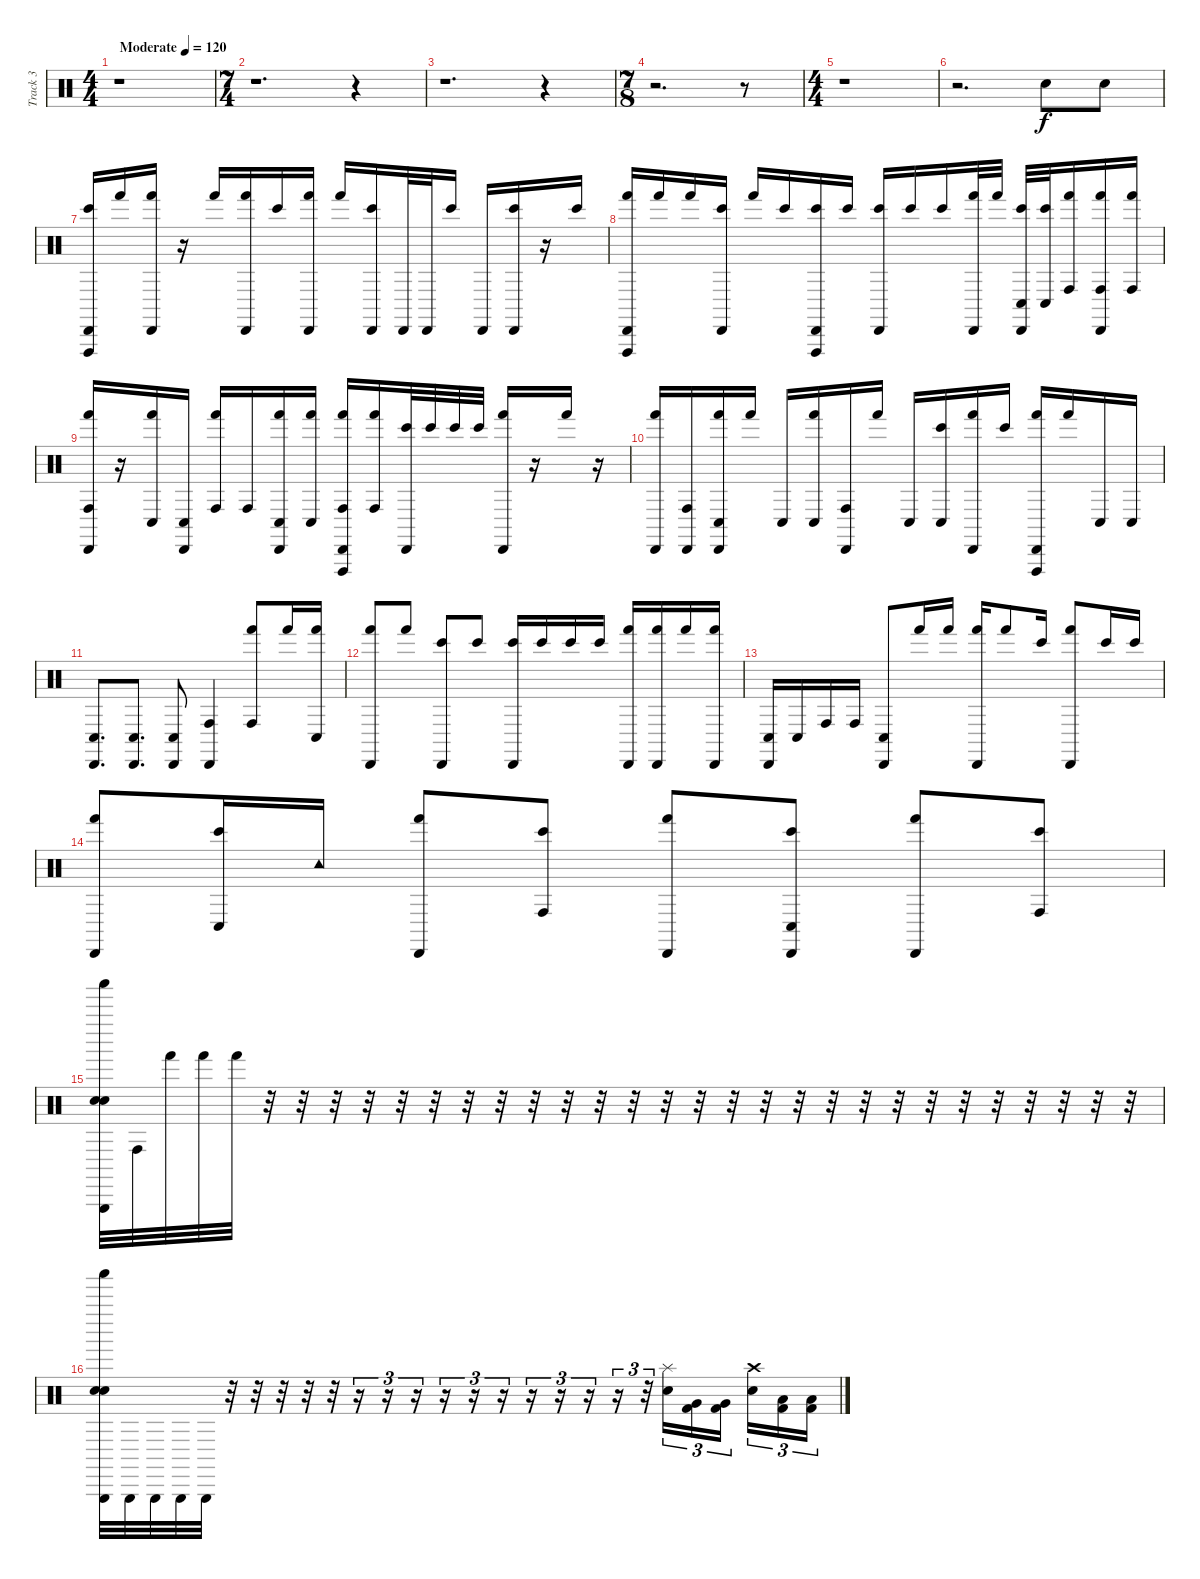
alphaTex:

\track ("Track 3" "Track 3") {instrument percussion}
\staff {score}
\articulation defaults
\ts (4 4)
\tempo (120 "Moderate")
\clef neutral
\ks c
r.1{dy f} |
\ts (7 4)
r.1{d} r.4 |
r.1{d} r.4 |
\ts (7 8)
r.2{d} r.8 |
\ts (4 4)
r.1 |
r.2{d} "Hand Clap (hit)".8 "Hand Clap (hit)".8 |
("Cabasa (hit)" "Bongo High (hit)" "Vibraslap (hit)").16 "Hand (hit)".16 ("Cabasa (hit)" "Hand (hit)").16 r.16 "Hand (hit)".16 ("Cabasa (hit)" "Hand (hit)").16 "Bongo High (hit)".16 ("Cabasa (hit)" "Hand (hit)").16 "Hand (hit)".16 ("Cabasa (hit)" "Bongo High (hit)").16 "Cabasa (hit)".32 "Cabasa (hit)".32 "Bongo High (hit)".16 "Cabasa (hit)".16 ("Cabasa (hit)" "Bongo High (hit)").16 r.16 "Bongo High (hit)".16 |
("Cabasa (hit)" "Hand (hit)" "Vibraslap (hit)").16 "Hand (hit)".16 "Hand (hit)".16 ("Cabasa (hit)" "Bongo High (hit)").16 "Hand (hit)".16 "Bongo High (hit)".16 ("Cabasa (hit)" "Bongo High (hit)" "Vibraslap (hit)").16 "Bongo High (hit)".16 ("Cabasa (hit)" "Bongo High (hit)").16 "Bongo High (hit)".16 "Bongo High (hit)".16 ("Cabasa (hit)" "Hand (hit)").32 "Hand (hit)".32 ("Cabasa (hit)" "Bongo High (hit)" "Conga low (hit)").32 ("Bongo High (hit)" "Conga low (hit)").32 ("Hand (hit)" "Conga high (hit)").16 ("Cabasa (hit)" "Hand (hit)" "Conga high (hit)").16 ("Hand (hit)" "Conga high (hit)").16 |
("Cabasa (hit)" "Hand (hit)" "Conga high (hit)").16 r.16 ("Hand (hit)" "Conga low (hit)").16 ("Cabasa (hit)" "Conga low (hit)").16 ("Hand (hit)" "Conga high (hit)").16 "Conga high (hit)".16 ("Cabasa (hit)" "Hand (hit)" "Conga low (hit)").16 ("Hand (hit)" "Conga low (hit)").16 ("Cabasa (hit)" "Hand (hit)" "Conga high (hit)" "Vibraslap (hit)").16 ("Hand (hit)" "Conga high (hit)").16 ("Cabasa (hit)" "Bongo High (hit)").32 "Bongo High (hit)".32 "Bongo High (hit)".32 "Bongo High (hit)".32 ("Cabasa (hit)" "Hand (hit)").16 r.16 "Hand (hit)".16 r.16 |
("Cabasa (hit)" "Hand (hit)").16 ("Cabasa (hit)" "Conga high (hit)").16 ("Cabasa (hit)" "Hand (hit)" "Conga low (hit)").16 "Hand (hit)".16 "Conga low (hit)".16 ("Hand (hit)" "Conga low (hit)").16 ("Cabasa (hit)" "Conga high (hit)").16 "Hand (hit)".16 "Conga low (hit)".16 ("Bongo High (hit)" "Conga low (hit)").16 ("Cabasa (hit)" "Hand (hit)").16 "Bongo High (hit)".16 ("Cabasa (hit)" "Hand (hit)" "Vibraslap (hit)").16 "Hand (hit)".16 "Conga low (hit)".16 "Conga low (hit)".16 |
("Cabasa (hit)" "Conga low (hit)").8{d} ("Cabasa (hit)" "Conga low (hit)").8{d} ("Cabasa (hit)" "Conga low (hit)").8 ("Cabasa (hit)" "Conga high (hit)").4 ("Hand (hit)" "Conga high (hit)").8 "Hand (hit)".16 ("Hand (hit)" "Conga low (hit)").16 |
("Hand (hit)" "Cabasa (hit)").8 "Hand (hit)".8 ("Bongo High (hit)" "Cabasa (hit)").8 "Bongo High (hit)".8 ("Bongo High (hit)" "Cabasa (hit)").16 "Bongo High (hit)".16 "Bongo High (hit)".16 "Bongo High (hit)".16 ("Hand (hit)" "Cabasa (hit)").16 ("Hand (hit)" "Cabasa (hit)").16 "Hand (hit)".16 ("Hand (hit)" "Cabasa (hit)").16 |
("Conga low (hit)" "Cabasa (hit)").16 "Conga low (hit)".16 "Conga high (hit)".16 "Conga high (hit)".16 ("Conga low (hit)" "Cabasa (hit)").8 "Hand (hit)".16 "Hand (hit)".16 ("Hand (hit)" "Cabasa (hit)").16 "Hand (hit)".8 "Bongo High (hit)".16 ("Hand (hit)" "Cabasa (hit)").8 "Bongo High (hit)".16 "Bongo High (hit)".16 |
("Hand (hit)" "Cabasa (hit)").8 ("Bongo High (hit)" "Conga low (hit)").16 "Tambourine (hit)".16 ("Hand (hit)" "Cabasa (hit)").8 ("Bongo High (hit)" "Conga high (hit)").8 ("Hand (hit)" "Cabasa (hit)").8 ("Bongo High (hit)" "Conga low (hit)" "Cabasa (hit)").8 ("Hand (hit)" "Cabasa (hit)").8 ("Bongo High (hit)" "Conga high (hit)").8 |
("Electric Snare (hit)" "Hand Clap (hit)" "Triangle (hit)" "Shaker (hit)").32 "Conga high (hit)".32 "Hand (hit)".32 "Hand (hit)".32 "Hand (hit)".32 r.32 r.32 r.32 r.32 r.32 r.32 r.32 r.32 r.32 r.32 r.32 r.32 r.32 r.32 r.32 r.32 r.32 r.32 r.32 r.32 r.32 r.32 r.32 r.32 r.32 r.32 r.32 |
("Electric Snare (hit)" "Hand Clap (hit)" "Triangle (hit)" "Shaker (hit)").32 "Triangle (hit)".32 "Triangle (hit)".32 "Triangle (hit)".32 "Triangle (hit)".32 r.32 r.32 r.32 r.32 r.32 r.16{tu (3 2)} r.16{tu (3 2)} r.16{tu (3 2)} r.16{tu (3 2)} r.16{tu (3 2)} r.16{tu (3 2)} r.16{tu (3 2)} r.16{tu (3 2)} r.16{tu (3 2)} r.16{tu (3 2)} r.32{tu (3 2)} ("Splash (hit)" "Electric Snare (hit)").16{tu (3 2)} ("Very Low Tom (hit)" "Kick (hit) 2").16{tu (3 2)} ("Very Low Tom (hit)" "Kick (hit) 2").16{tu (3 2)} ("Crash high (hit)" "Electric Snare (hit)").16{tu (3 2)} ("Low Tom (hit)" "Kick (hit) 2").16{tu (3 2)} ("Low Tom (hit)" "Kick (hit) 2").16{tu (3 2)}
